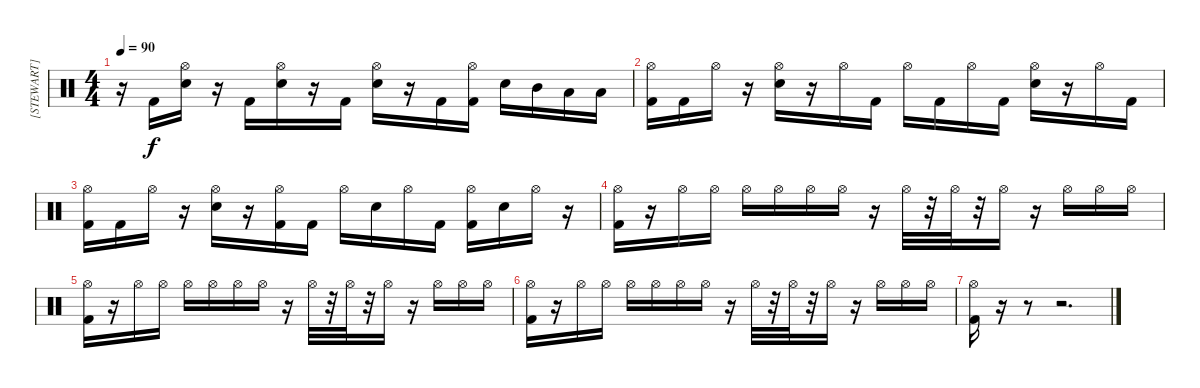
\track ("[STEWART]" "[STEWART]") {instrument percussion}
\staff {score}
\articulation defaults
\ts (4 4)
\tempo 90
\clef neutral
\ks c
r.16{dy f} "Kick (hit) 2".16 ("Hi-Hat (open)" "Snare (hit) 2").16 r.16 "Kick (hit) 2".16 ("Hi-Hat (open)" "Snare (hit) 2").16 r.16 "Kick (hit) 2".16 ("Hi-Hat (open)" "Snare (hit) 2").16 r.16 "Kick (hit) 2".16 ("Hi-Hat (open)" "Kick (hit) 2").16 "Snare (hit) 2".16 "Mid Tom (hit)".16 "Low Tom (hit)".16 "Low Floor Tom (hit)".16 |
("Hi-Hat (open)" "Kick (hit) 2").16 "Kick (hit) 2".16 "Hi-Hat (open)".16 r.16 ("Hi-Hat (open)" "Snare (hit) 2").16 r.16 "Hi-Hat (open)".16 "Kick (hit) 2".16 "Hi-Hat (open)".16 "Kick (hit) 2".16 "Hi-Hat (open)".16 "Kick (hit) 2".16 ("Hi-Hat (open)" "Snare (hit) 2").16 r.16 "Hi-Hat (open)".16 "Kick (hit) 2".16 |
("Hi-Hat (open)" "Kick (hit) 2").16 "Kick (hit) 2".16 "Hi-Hat (open)".16 r.16 ("Hi-Hat (open)" "Snare (hit) 2").16 r.16 ("Hi-Hat (open)" "Kick (hit) 2").16 "Kick (hit) 2".16 "Hi-Hat (open)".16 "Snare (hit) 2".16 "Hi-Hat (open)".16 "Kick (hit) 2".16 ("Hi-Hat (open)" "Kick (hit) 2").16 "Snare (hit) 2".16 "Hi-Hat (open)".16 r.16 |
("Hi-Hat (open)" "Kick (hit) 2").16 r.16 "Hi-Hat (open)".16 "Hi-Hat (open)".16 "Hi-Hat (open)".16 "Hi-Hat (open)".16 "Hi-Hat (open)".16 "Hi-Hat (open)".16 r.16 "Hi-Hat (open)".32 r.32 "Hi-Hat (open)".32 r.32 "Hi-Hat (open)".16 r.16 "Hi-Hat (open)".16 "Hi-Hat (open)".16 "Hi-Hat (open)".16 |
("Hi-Hat (open)" "Kick (hit) 2").16 r.16 "Hi-Hat (open)".16 "Hi-Hat (open)".16 "Hi-Hat (open)".16 "Hi-Hat (open)".16 "Hi-Hat (open)".16 "Hi-Hat (open)".16 r.16 "Hi-Hat (open)".32 r.32 "Hi-Hat (open)".32 r.32 "Hi-Hat (open)".16 r.16 "Hi-Hat (open)".16 "Hi-Hat (open)".16 "Hi-Hat (open)".16 |
("Hi-Hat (open)" "Kick (hit) 2").16 r.16 "Hi-Hat (open)".16 "Hi-Hat (open)".16 "Hi-Hat (open)".16 "Hi-Hat (open)".16 "Hi-Hat (open)".16 "Hi-Hat (open)".16 r.16 "Hi-Hat (open)".32 r.32 "Hi-Hat (open)".32 r.32 "Hi-Hat (open)".16 r.16 "Hi-Hat (open)".16 "Hi-Hat (open)".16 "Hi-Hat (open)".16 |
("Hi-Hat (open)" "Kick (hit) 2").16 r.16 r.8 r.2{d}
